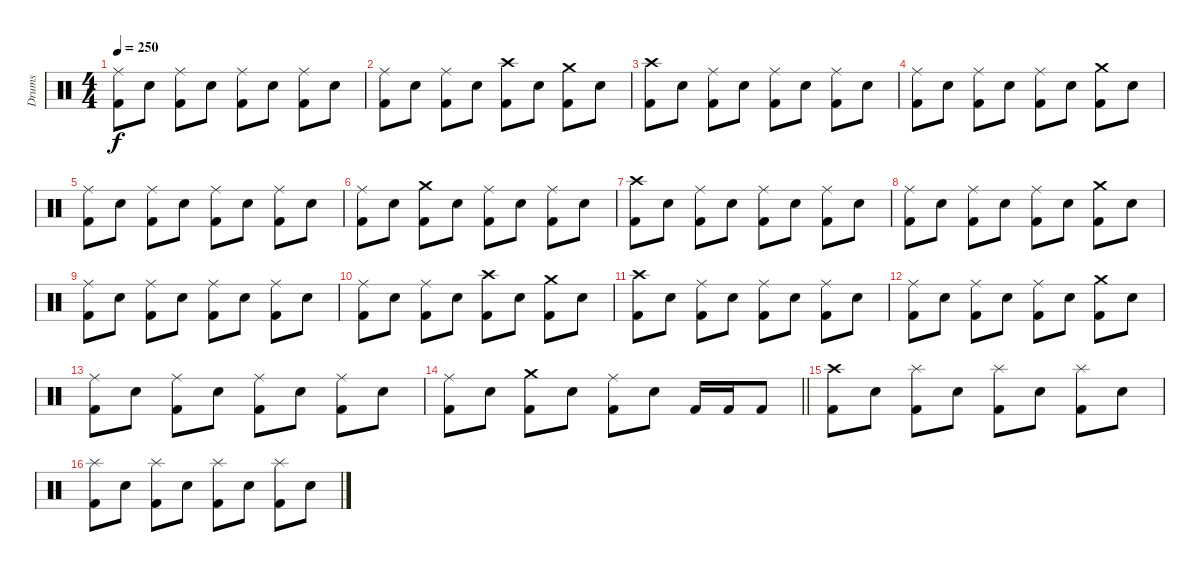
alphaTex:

\track ("Drums" "Drums") {instrument percussion}
\staff {score}
\articulation defaults
\ts (4 4)
\tempo 250
\clef neutral
\ks c
("Ride (middle)" "Kick (hit) 2").8{dy f} "Electric Snare (hit)".8 ("Ride (middle)" "Kick (hit) 2").8 "Electric Snare (hit)".8 ("Ride (middle)" "Kick (hit) 2").8 "Electric Snare (hit)".8 ("Ride (middle)" "Kick (hit) 2").8 "Electric Snare (hit)".8 |
("Ride (middle)" "Kick (hit) 2").8 "Electric Snare (hit)".8 ("Ride (middle)" "Kick (hit) 2").8 "Electric Snare (hit)".8 ("Crash high (hit)" "Kick (hit) 2").8 "Electric Snare (hit)".8 ("Crash medium (hit)" "Kick (hit) 2").8 "Electric Snare (hit)".8 |
("Crash high (hit)" "Kick (hit) 2").8 "Electric Snare (hit)".8 ("Ride (middle)" "Kick (hit) 2").8 "Electric Snare (hit)".8 ("Ride (middle)" "Kick (hit) 2").8 "Electric Snare (hit)".8 ("Ride (middle)" "Kick (hit) 2").8 "Electric Snare (hit)".8 |
("Ride (middle)" "Kick (hit) 2").8 "Electric Snare (hit)".8 ("Ride (middle)" "Kick (hit) 2").8 "Electric Snare (hit)".8 ("Ride (middle)" "Kick (hit) 2").8 "Electric Snare (hit)".8 ("Crash medium (hit)" "Kick (hit) 2").8 "Electric Snare (hit)".8 |
("Ride (middle)" "Kick (hit) 2").8 "Electric Snare (hit)".8 ("Ride (middle)" "Kick (hit) 2").8 "Electric Snare (hit)".8 ("Ride (middle)" "Kick (hit) 2").8 "Electric Snare (hit)".8 ("Ride (middle)" "Kick (hit) 2").8 "Electric Snare (hit)".8 |
("Ride (middle)" "Kick (hit) 2").8 "Electric Snare (hit)".8 ("Crash medium (hit)" "Kick (hit) 2").8 "Electric Snare (hit)".8 ("Ride (middle)" "Kick (hit) 2").8 "Electric Snare (hit)".8 ("Ride (middle)" "Kick (hit) 2").8 "Electric Snare (hit)".8 |
("Crash high (hit)" "Kick (hit) 2").8 "Electric Snare (hit)".8 ("Ride (middle)" "Kick (hit) 2").8 "Electric Snare (hit)".8 ("Ride (middle)" "Kick (hit) 2").8 "Electric Snare (hit)".8 ("Ride (middle)" "Kick (hit) 2").8 "Electric Snare (hit)".8 |
("Ride (middle)" "Kick (hit) 2").8 "Electric Snare (hit)".8 ("Ride (middle)" "Kick (hit) 2").8 "Electric Snare (hit)".8 ("Ride (middle)" "Kick (hit) 2").8 "Electric Snare (hit)".8 ("Crash medium (hit)" "Kick (hit) 2").8 "Electric Snare (hit)".8 |
("Ride (middle)" "Kick (hit) 2").8 "Electric Snare (hit)".8 ("Ride (middle)" "Kick (hit) 2").8 "Electric Snare (hit)".8 ("Ride (middle)" "Kick (hit) 2").8 "Electric Snare (hit)".8 ("Ride (middle)" "Kick (hit) 2").8 "Electric Snare (hit)".8 |
("Ride (middle)" "Kick (hit) 2").8 "Electric Snare (hit)".8 ("Ride (middle)" "Kick (hit) 2").8 "Electric Snare (hit)".8 ("Crash high (hit)" "Kick (hit) 2").8 "Electric Snare (hit)".8 ("Crash medium (hit)" "Kick (hit) 2").8 "Electric Snare (hit)".8 |
("Crash high (hit)" "Kick (hit) 2").8 "Electric Snare (hit)".8 ("Ride (middle)" "Kick (hit) 2").8 "Electric Snare (hit)".8 ("Ride (middle)" "Kick (hit) 2").8 "Electric Snare (hit)".8 ("Ride (middle)" "Kick (hit) 2").8 "Electric Snare (hit)".8 |
("Ride (middle)" "Kick (hit) 2").8 "Electric Snare (hit)".8 ("Ride (middle)" "Kick (hit) 2").8 "Electric Snare (hit)".8 ("Ride (middle)" "Kick (hit) 2").8 "Electric Snare (hit)".8 ("Crash medium (hit)" "Kick (hit) 2").8 "Electric Snare (hit)".8 |
("Ride (middle)" "Kick (hit) 2").8 "Electric Snare (hit)".8 ("Ride (middle)" "Kick (hit) 2").8 "Electric Snare (hit)".8 ("Ride (middle)" "Kick (hit) 2").8 "Electric Snare (hit)".8 ("Ride (middle)" "Kick (hit) 2").8 "Electric Snare (hit)".8 |
\barLineRight lightlight
("Ride (middle)" "Kick (hit) 2").8 "Electric Snare (hit)".8 ("Crash medium (hit)" "Kick (hit) 2").8 "Electric Snare (hit)".8 ("Ride (middle)" "Kick (hit) 2").8 "Electric Snare (hit)".8 "Kick (hit) 2".16 "Kick (hit) 2".16 "Kick (hit) 2".8 |
("Crash high (hit)" "Kick (hit) 2").8 "Electric Snare (hit)".8 ("Splash (hit)" "Kick (hit) 2").8 "Electric Snare (hit)".8 ("Splash (hit)" "Kick (hit) 2").8 "Electric Snare (hit)".8 ("Splash (hit)" "Kick (hit) 2").8 "Electric Snare (hit)".8 |
("Splash (hit)" "Kick (hit) 2").8 "Electric Snare (hit)".8 ("Splash (hit)" "Kick (hit) 2").8 "Electric Snare (hit)".8 ("Splash (hit)" "Kick (hit) 2").8 "Electric Snare (hit)".8 ("Splash (hit)" "Kick (hit) 2").8 "Electric Snare (hit)".8
